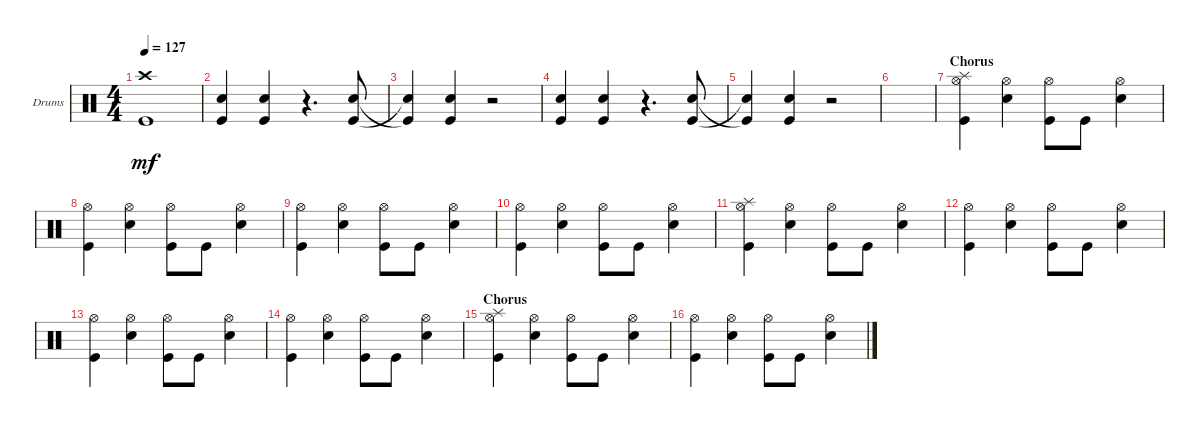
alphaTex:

\defaultSystemsLayout 4
\bracketExtendMode groupsimilarinstruments
\firstSystemTrackNameOrientation horizontal
\otherSystemsTrackNameOrientation horizontal
\track ("Drums 2" "Drums") {instrument percussion}
\staff {score}
\articulation defaults
\ts (4 4)
\tempo 127
\clef neutral
\ks c
("Kick (hit)"{t} "Crash high (hit)"{t}).1{dy mf} |
("Snare (hit) 2" "Kick (hit)").4 ("Kick (hit)" "Snare (hit) 2").4 r.4{d} ("Snare (hit) 2" "Kick (hit)").8 |
("Kick (hit)"{t} "Snare (hit) 2"{t}).4 ("Snare (hit) 2" "Kick (hit)").4 r.2 |
("Snare (hit) 2" "Kick (hit)").4 ("Kick (hit)" "Snare (hit) 2").4 r.4{d} ("Snare (hit) 2" "Kick (hit)").8 |
("Kick (hit)"{t} "Snare (hit) 2"{t}).4 ("Snare (hit) 2" "Kick (hit)").4 r.2 |
|
\section ("" "Chorus")
("Kick (hit)" "Hi-Hat (open)" "Splash (hit)").4 ("Hi-Hat (open)" "Snare (hit) 2").4 ("Hi-Hat (open)" "Kick (hit)").8 "Kick (hit)".8 ("Hi-Hat (open)" "Snare (hit) 2").4 |
("Kick (hit)" "Hi-Hat (open)").4 ("Hi-Hat (open)" "Snare (hit) 2").4 ("Hi-Hat (open)" "Kick (hit)").8 "Kick (hit)".8 ("Hi-Hat (open)" "Snare (hit) 2").4 |
("Kick (hit)" "Hi-Hat (open)").4 ("Hi-Hat (open)" "Snare (hit) 2").4 ("Hi-Hat (open)" "Kick (hit)").8 "Kick (hit)".8 ("Hi-Hat (open)" "Snare (hit) 2").4 |
("Kick (hit)" "Hi-Hat (open)").4 ("Hi-Hat (open)" "Snare (hit) 2").4 ("Hi-Hat (open)" "Kick (hit)").8 "Kick (hit)".8 ("Hi-Hat (open)" "Snare (hit) 2").4 |
("Kick (hit)" "Hi-Hat (open)" "Splash (hit)").4 ("Hi-Hat (open)" "Snare (hit) 2").4 ("Hi-Hat (open)" "Kick (hit)").8 "Kick (hit)".8 ("Hi-Hat (open)" "Snare (hit) 2").4 |
("Kick (hit)" "Hi-Hat (open)").4 ("Hi-Hat (open)" "Snare (hit) 2").4 ("Hi-Hat (open)" "Kick (hit)").8 "Kick (hit)".8 ("Hi-Hat (open)" "Snare (hit) 2").4 |
("Kick (hit)" "Hi-Hat (open)").4 ("Hi-Hat (open)" "Snare (hit) 2").4 ("Hi-Hat (open)" "Kick (hit)").8 "Kick (hit)".8 ("Hi-Hat (open)" "Snare (hit) 2").4 |
("Kick (hit)" "Hi-Hat (open)").4 ("Hi-Hat (open)" "Snare (hit) 2").4 ("Hi-Hat (open)" "Kick (hit)").8 "Kick (hit)".8 ("Hi-Hat (open)" "Snare (hit) 2").4 |
\section ("" "Chorus")
("Kick (hit)" "Hi-Hat (open)" "Splash (hit)").4 ("Hi-Hat (open)" "Snare (hit) 2").4 ("Hi-Hat (open)" "Kick (hit)").8 "Kick (hit)".8 ("Hi-Hat (open)" "Snare (hit) 2").4 |
("Kick (hit)" "Hi-Hat (open)").4 ("Hi-Hat (open)" "Snare (hit) 2").4 ("Hi-Hat (open)" "Kick (hit)").8 "Kick (hit)".8 ("Hi-Hat (open)" "Snare (hit) 2").4
